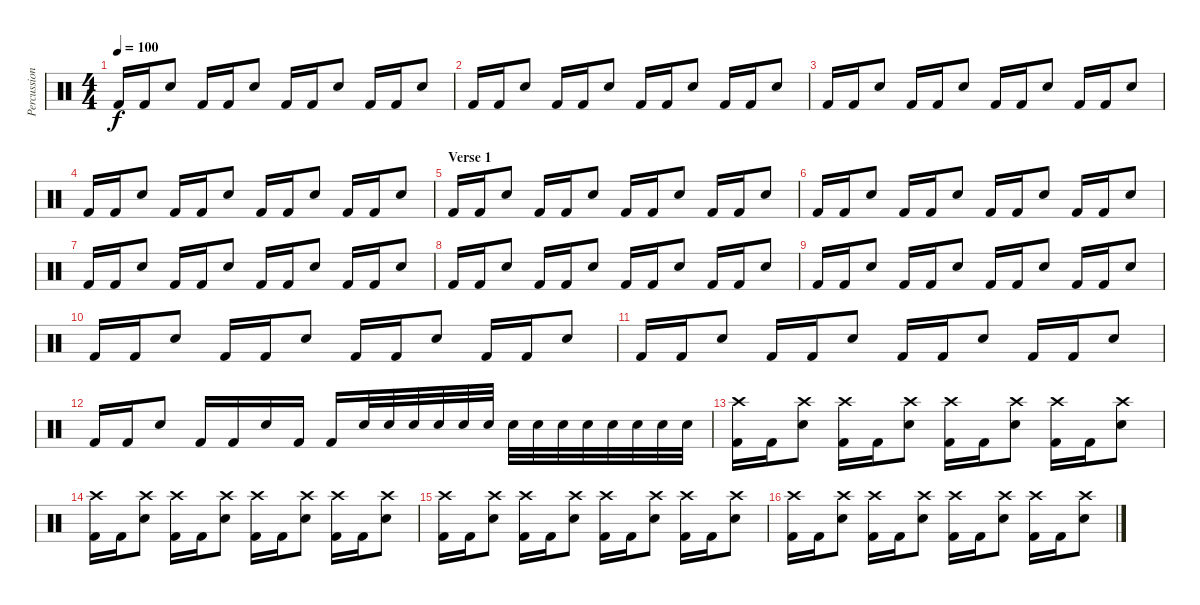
\track ("Percussion" "Percussion") {instrument percussion}
\staff {score}
\articulation defaults
\ts (4 4)
\tempo 100
\clef neutral
\ks c "Kick (hit) 2".16{dy f} "Kick (hit) 2".16 "Electric Snare (hit)".8 "Kick (hit) 2".16 "Kick (hit) 2".16 "Electric Snare (hit)".8 "Kick (hit) 2".16 "Kick (hit) 2".16 "Electric Snare (hit)".8 "Kick (hit) 2".16 "Kick (hit) 2".16 "Electric Snare (hit)".8
|
"Kick (hit) 2".16 "Kick (hit) 2".16 "Electric Snare (hit)".8 "Kick (hit) 2".16 "Kick (hit) 2".16 "Electric Snare (hit)".8 "Kick (hit) 2".16 "Kick (hit) 2".16 "Electric Snare (hit)".8 "Kick (hit) 2".16 "Kick (hit) 2".16 "Electric Snare (hit)".8 |
"Kick (hit) 2".16 "Kick (hit) 2".16 "Electric Snare (hit)".8 "Kick (hit) 2".16 "Kick (hit) 2".16 "Electric Snare (hit)".8 "Kick (hit) 2".16 "Kick (hit) 2".16 "Electric Snare (hit)".8 "Kick (hit) 2".16 "Kick (hit) 2".16 "Electric Snare (hit)".8 |
"Kick (hit) 2".16 "Kick (hit) 2".16 "Electric Snare (hit)".8 "Kick (hit) 2".16 "Kick (hit) 2".16 "Electric Snare (hit)".8 "Kick (hit) 2".16 "Kick (hit) 2".16 "Electric Snare (hit)".8 "Kick (hit) 2".16 "Kick (hit) 2".16 "Electric Snare (hit)".8 |
\section ("" "Verse 1")
"Kick (hit) 2".16 "Kick (hit) 2".16 "Electric Snare (hit)".8 "Kick (hit) 2".16 "Kick (hit) 2".16 "Electric Snare (hit)".8 "Kick (hit) 2".16 "Kick (hit) 2".16 "Electric Snare (hit)".8 "Kick (hit) 2".16 "Kick (hit) 2".16 "Electric Snare (hit)".8 |
"Kick (hit) 2".16 "Kick (hit) 2".16 "Electric Snare (hit)".8 "Kick (hit) 2".16 "Kick (hit) 2".16 "Electric Snare (hit)".8 "Kick (hit) 2".16 "Kick (hit) 2".16 "Electric Snare (hit)".8 "Kick (hit) 2".16 "Kick (hit) 2".16 "Electric Snare (hit)".8 |
"Kick (hit) 2".16 "Kick (hit) 2".16 "Electric Snare (hit)".8 "Kick (hit) 2".16 "Kick (hit) 2".16 "Electric Snare (hit)".8 "Kick (hit) 2".16 "Kick (hit) 2".16 "Electric Snare (hit)".8 "Kick (hit) 2".16 "Kick (hit) 2".16 "Electric Snare (hit)".8 |
"Kick (hit) 2".16 "Kick (hit) 2".16 "Electric Snare (hit)".8 "Kick (hit) 2".16 "Kick (hit) 2".16 "Electric Snare (hit)".8 "Kick (hit) 2".16 "Kick (hit) 2".16 "Electric Snare (hit)".8 "Kick (hit) 2".16 "Kick (hit) 2".16 "Electric Snare (hit)".8 |
"Kick (hit) 2".16 "Kick (hit) 2".16 "Electric Snare (hit)".8 "Kick (hit) 2".16 "Kick (hit) 2".16 "Electric Snare (hit)".8 "Kick (hit) 2".16 "Kick (hit) 2".16 "Electric Snare (hit)".8 "Kick (hit) 2".16 "Kick (hit) 2".16 "Electric Snare (hit)".8 |
"Kick (hit) 2".16 "Kick (hit) 2".16 "Electric Snare (hit)".8 "Kick (hit) 2".16 "Kick (hit) 2".16 "Electric Snare (hit)".8 "Kick (hit) 2".16 "Kick (hit) 2".16 "Electric Snare (hit)".8 "Kick (hit) 2".16 "Kick (hit) 2".16 "Electric Snare (hit)".8 |
"Kick (hit) 2".16 "Kick (hit) 2".16 "Electric Snare (hit)".8 "Kick (hit) 2".16 "Kick (hit) 2".16 "Electric Snare (hit)".8 "Kick (hit) 2".16 "Kick (hit) 2".16 "Electric Snare (hit)".8 "Kick (hit) 2".16 "Kick (hit) 2".16 "Electric Snare (hit)".8 |
"Kick (hit) 2".16 "Kick (hit) 2".16 "Electric Snare (hit)".8 "Kick (hit) 2".16 "Kick (hit) 2".16 "Electric Snare (hit)".16 "Kick (hit) 2".16 "Kick (hit) 2".16 "Electric Snare (hit)".32 "Electric Snare (hit)".32 "Electric Snare (hit)".32 "Electric Snare (hit)".32 "Electric Snare (hit)".32 "Electric Snare (hit)".32 "Electric Snare (hit)".32 "Electric Snare (hit)".32 "Electric Snare (hit)".32 "Electric Snare (hit)".32 "Electric Snare (hit)".32 "Electric Snare (hit)".32 "Electric Snare (hit)".32 "Electric Snare (hit)".32 |
("Crash high (hit)" "Kick (hit) 2").16 "Kick (hit) 2".16 ("Crash high (hit)" "Electric Snare (hit)").8 ("Crash high (hit)" "Kick (hit) 2").16 "Kick (hit) 2".16 ("Crash high (hit)" "Electric Snare (hit)").8 ("Crash high (hit)" "Kick (hit) 2").16 "Kick (hit) 2".16 ("Crash high (hit)" "Electric Snare (hit)").8 ("Crash high (hit)" "Kick (hit) 2").16 "Kick (hit) 2".16 ("Crash high (hit)" "Electric Snare (hit)").8 |
("Crash high (hit)" "Kick (hit) 2").16 "Kick (hit) 2".16 ("Crash high (hit)" "Electric Snare (hit)").8 ("Crash high (hit)" "Kick (hit) 2").16 "Kick (hit) 2".16 ("Crash high (hit)" "Electric Snare (hit)").8 ("Crash high (hit)" "Kick (hit) 2").16 "Kick (hit) 2".16 ("Crash high (hit)" "Electric Snare (hit)").8 ("Crash high (hit)" "Kick (hit) 2").16 "Kick (hit) 2".16 ("Crash high (hit)" "Electric Snare (hit)").8 |
("Crash high (hit)" "Kick (hit) 2").16 "Kick (hit) 2".16 ("Crash high (hit)" "Electric Snare (hit)").8 ("Crash high (hit)" "Kick (hit) 2").16 "Kick (hit) 2".16 ("Crash high (hit)" "Electric Snare (hit)").8 ("Crash high (hit)" "Kick (hit) 2").16 "Kick (hit) 2".16 ("Crash high (hit)" "Electric Snare (hit)").8 ("Crash high (hit)" "Kick (hit) 2").16 "Kick (hit) 2".16 ("Crash high (hit)" "Electric Snare (hit)").8 |
("Crash high (hit)" "Kick (hit) 2").16 "Kick (hit) 2".16 ("Crash high (hit)" "Electric Snare (hit)").8 ("Crash high (hit)" "Kick (hit) 2").16 "Kick (hit) 2".16 ("Crash high (hit)" "Electric Snare (hit)").8 ("Crash high (hit)" "Kick (hit) 2").16 "Kick (hit) 2".16 ("Crash high (hit)" "Electric Snare (hit)").8 ("Crash high (hit)" "Kick (hit) 2").16 "Kick (hit) 2".16 ("Crash high (hit)" "Electric Snare (hit)").8
